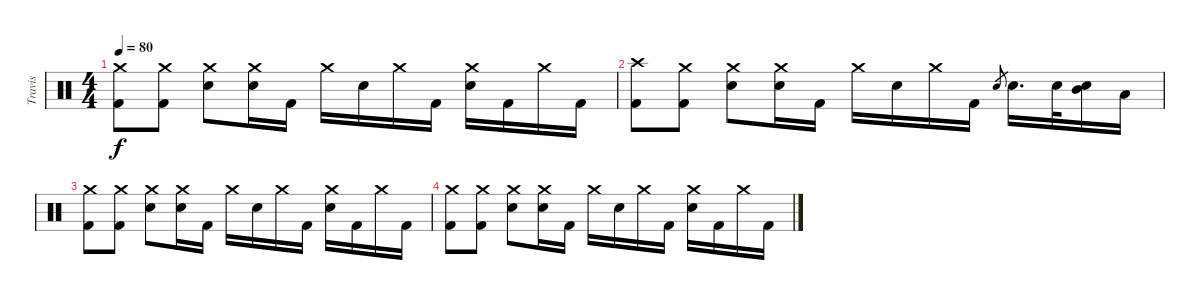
\track ("Travis" "Travis") {instrument percussion}
\staff {score}
\articulation defaults
\ts (4 4)
\tempo 80
\clef neutral
\ks c
("Crash medium (hit)" "Kick (hit) 2").8{dy f} ("Crash medium (hit)" "Kick (hit) 2").8 ("Crash medium (hit)" "Electric Snare (hit)").8 ("Crash medium (hit)" "Electric Snare (hit)").16 "Kick (hit) 2".16 "Crash medium (hit)".16 "Electric Snare (hit)".16 "Crash medium (hit)".16 "Kick (hit) 2".16 ("Crash medium (hit)" "Electric Snare (hit)").16 "Kick (hit) 2".16 "Crash medium (hit)".16 "Kick (hit) 2".16 |
("Crash high (hit)" "Kick (hit) 2").8 ("Crash medium (hit)" "Kick (hit) 2").8 ("Crash medium (hit)" "Electric Snare (hit)").8 ("Crash medium (hit)" "Electric Snare (hit)").16 "Kick (hit) 2".16 "Crash medium (hit)".16 "Electric Snare (hit)".16 "Crash medium (hit)".16 "Kick (hit) 2".16 "Electric Snare (hit)".8{gr} "Electric Snare (hit)".16{d} "Electric Snare (hit)".32 ("Electric Snare (hit)" "Mid Tom (hit)").16 "Low Tom (hit)".16 |
("Crash medium (hit)" "Kick (hit) 2").8 ("Crash medium (hit)" "Kick (hit) 2").8 ("Crash medium (hit)" "Electric Snare (hit)").8 ("Crash medium (hit)" "Electric Snare (hit)").16 "Kick (hit) 2".16 "Crash medium (hit)".16 "Electric Snare (hit)".16 "Crash medium (hit)".16 "Kick (hit) 2".16 ("Crash medium (hit)" "Electric Snare (hit)").16 "Kick (hit) 2".16 "Crash medium (hit)".16 "Kick (hit) 2".16 |
("Crash medium (hit)" "Kick (hit) 2").8 ("Crash medium (hit)" "Kick (hit) 2").8 ("Crash medium (hit)" "Electric Snare (hit)").8 ("Crash medium (hit)" "Electric Snare (hit)").16 "Kick (hit) 2".16 "Crash medium (hit)".16 "Electric Snare (hit)".16 "Crash medium (hit)".16 "Kick (hit) 2".16 ("Crash medium (hit)" "Electric Snare (hit)").16 "Kick (hit) 2".16 "Crash medium (hit)".16 "Kick (hit) 2".16
